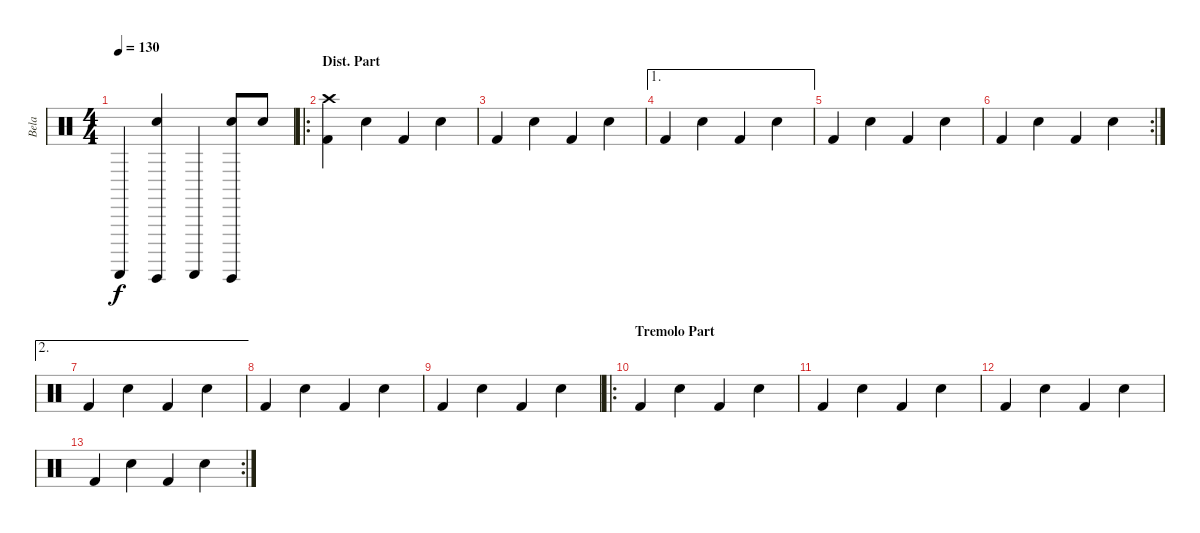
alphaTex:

\track ("Bela" "Bela") {instrument percussion}
\staff {score}
\articulation defaults
\ts (4 4)
\tempo 130
\clef neutral
\ks c "Guiro (scrap-return)".4{dy f}
("Guiro (hit)" "Electric Snare (hit)").4 "Guiro (scrap-return)".4 ("Guiro (hit)" "Electric Snare (hit)").8 "Electric Snare (hit)".8 |
\ro
\section ("" "Dist. Part")
("Crash high (hit)" "Kick (hit) 2").4 "Electric Snare (hit)".4 "Kick (hit) 2".4 "Electric Snare (hit)".4 |
"Kick (hit) 2".4 "Electric Snare (hit)".4 "Kick (hit) 2".4 "Electric Snare (hit)".4 |
\ae 1 "Kick (hit) 2".4 "Electric Snare (hit)".4 "Kick (hit) 2".4 "Electric Snare (hit)".4
|
"Kick (hit) 2".4 "Electric Snare (hit)".4 "Kick (hit) 2".4 "Electric Snare (hit)".4 |
\rc 2 "Kick (hit) 2".4 "Electric Snare (hit)".4 "Kick (hit) 2".4 "Electric Snare (hit)".4
|
\ae 2 "Kick (hit) 2".4 "Electric Snare (hit)".4 "Kick (hit) 2".4 "Electric Snare (hit)".4
|
"Kick (hit) 2".4 "Electric Snare (hit)".4 "Kick (hit) 2".4 "Electric Snare (hit)".4 |
"Kick (hit) 2".4 "Electric Snare (hit)".4 "Kick (hit) 2".4 "Electric Snare (hit)".4 |
\ro
\section ("" "Tremolo Part")
"Kick (hit) 2".4 "Electric Snare (hit)".4 "Kick (hit) 2".4 "Electric Snare (hit)".4 |
"Kick (hit) 2".4 "Electric Snare (hit)".4 "Kick (hit) 2".4 "Electric Snare (hit)".4 |
"Kick (hit) 2".4 "Electric Snare (hit)".4 "Kick (hit) 2".4 "Electric Snare (hit)".4 |
\rc 2 "Kick (hit) 2".4 "Electric Snare (hit)".4 "Kick (hit) 2".4 "Electric Snare (hit)".4
